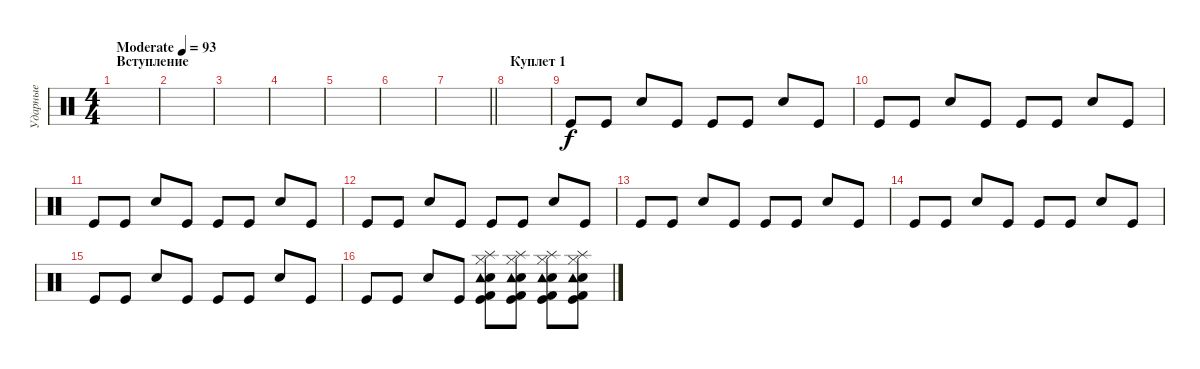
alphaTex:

\track ("Ударные" "Ударные") {instrument percussion}
\staff {score}
\articulation defaults
\ts (4 4)
\section ("" "Вступление")
\tempo (93 "Moderate")
\clef neutral
\ks c
|
|
|
|
|
|
\barLineRight lightlight
|
\section ("" "Куплет 1")
|
"Kick (hit)".8 "Kick (hit)".8 "Snare (hit) 2".8 "Kick (hit)".8 "Kick (hit)".8 "Kick (hit)".8 "Snare (hit) 2".8 "Kick (hit)".8 |
"Kick (hit)".8 "Kick (hit)".8 "Snare (hit) 2".8 "Kick (hit)".8 "Kick (hit)".8 "Kick (hit)".8 "Snare (hit) 2".8 "Kick (hit)".8 |
"Kick (hit)".8 "Kick (hit)".8 "Snare (hit) 2".8 "Kick (hit)".8 "Kick (hit)".8 "Kick (hit)".8 "Snare (hit) 2".8 "Kick (hit)".8 |
"Kick (hit)".8 "Kick (hit)".8 "Snare (hit) 2".8 "Kick (hit)".8 "Kick (hit)".8 "Kick (hit)".8 "Snare (hit) 2".8 "Kick (hit)".8 |
"Kick (hit)".8 "Kick (hit)".8 "Snare (hit) 2".8 "Kick (hit)".8 "Kick (hit)".8 "Kick (hit)".8 "Snare (hit) 2".8 "Kick (hit)".8 |
"Kick (hit)".8 "Kick (hit)".8 "Snare (hit) 2".8 "Kick (hit)".8 "Kick (hit)".8 "Kick (hit)".8 "Snare (hit) 2".8 "Kick (hit)".8 |
"Kick (hit)".8 "Kick (hit)".8 "Snare (hit) 2".8 "Kick (hit)".8 "Kick (hit)".8 "Kick (hit)".8 "Snare (hit) 2".8 "Kick (hit)".8 |
"Kick (hit)".8 "Kick (hit)".8 "Snare (hit) 2".8 "Kick (hit)".8 ("Kick (hit)" "Snare (hit) 2" "Kick (hit) 2" "Splash (hit)" "Tambourine (hit)" "Hi-Hat (closed)").8 ("Kick (hit)" "Snare (hit) 2" "Kick (hit) 2" "Splash (hit)" "Tambourine (hit)" "Hi-Hat (closed)").8 ("Kick (hit)" "Snare (hit) 2" "Kick (hit) 2" "Splash (hit)" "Tambourine (hit)" "Hi-Hat (closed)").8 ("Kick (hit)" "Snare (hit) 2" "Kick (hit) 2" "Splash (hit)" "Tambourine (hit)" "Hi-Hat (closed)").8
